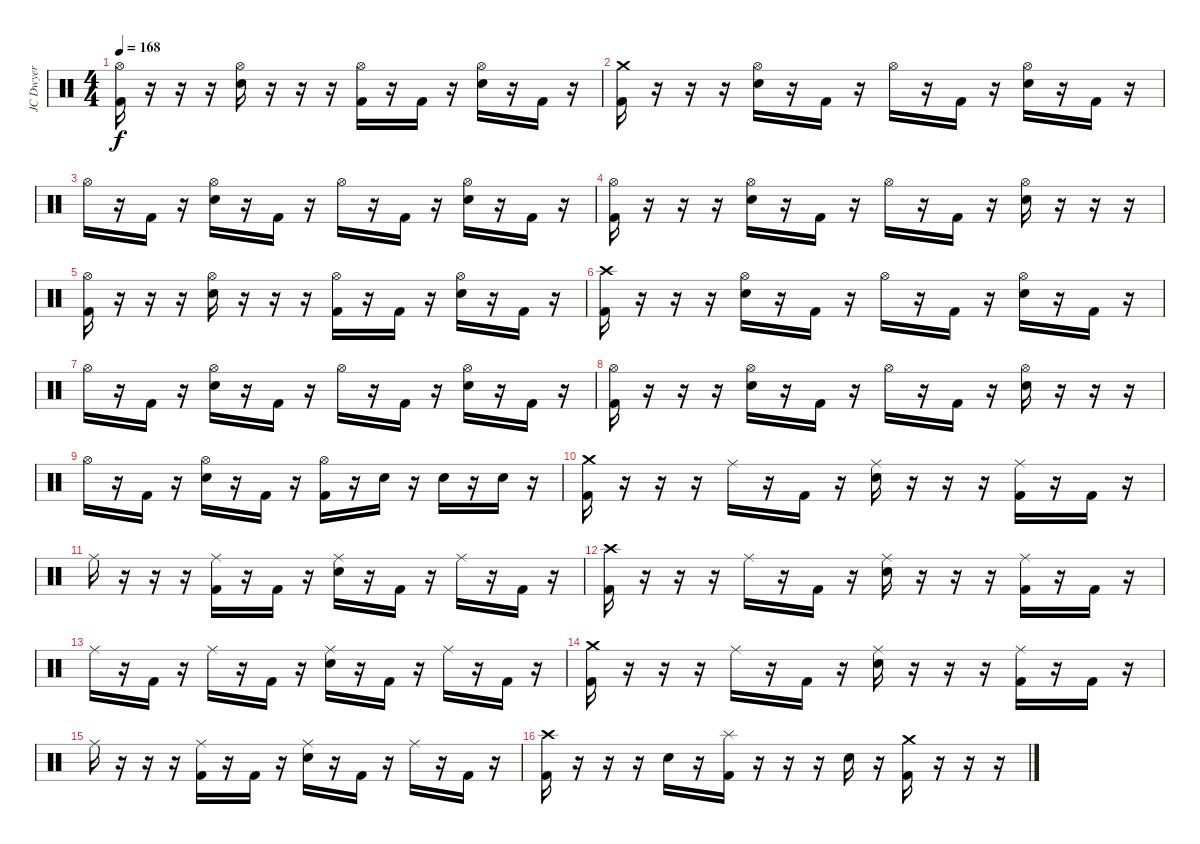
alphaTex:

\track ("JC Dwyer" "JC Dwyer") {instrument percussion}
\staff {score}
\articulation defaults
\ts (4 4)
\tempo 168
\clef neutral
\ks c
("Hi-Hat (open)" "Kick (hit) 2").16{dy f} r.16 r.16 r.16 ("Hi-Hat (open)" "Electric Snare (hit)").16 r.16 r.16 r.16 ("Hi-Hat (open)" "Kick (hit) 2").16 r.16 "Kick (hit) 2".16 r.16 ("Hi-Hat (open)" "Electric Snare (hit)").16 r.16 "Kick (hit) 2".16 r.16 |
("Crash medium (hit)" "Kick (hit) 2").16 r.16 r.16 r.16 ("Hi-Hat (open)" "Electric Snare (hit)").16 r.16 "Kick (hit) 2".16 r.16 "Hi-Hat (open)".16 r.16 "Kick (hit) 2".16 r.16 ("Hi-Hat (open)" "Electric Snare (hit)").16 r.16 "Kick (hit) 2".16 r.16 |
"Hi-Hat (open)".16 r.16 "Kick (hit) 2".16 r.16 ("Hi-Hat (open)" "Electric Snare (hit)").16 r.16 "Kick (hit) 2".16 r.16 "Hi-Hat (open)".16 r.16 "Kick (hit) 2".16 r.16 ("Hi-Hat (open)" "Electric Snare (hit)").16 r.16 "Kick (hit) 2".16 r.16 |
("Hi-Hat (open)" "Kick (hit) 2").16 r.16 r.16 r.16 ("Hi-Hat (open)" "Electric Snare (hit)").16 r.16 "Kick (hit) 2".16 r.16 "Hi-Hat (open)".16 r.16 "Kick (hit) 2".16 r.16 ("Hi-Hat (open)" "Electric Snare (hit)").16 r.16 r.16 r.16 |
("Hi-Hat (open)" "Kick (hit) 2").16 r.16 r.16 r.16 ("Hi-Hat (open)" "Electric Snare (hit)").16 r.16 r.16 r.16 ("Hi-Hat (open)" "Kick (hit) 2").16 r.16 "Kick (hit) 2".16 r.16 ("Hi-Hat (open)" "Electric Snare (hit)").16 r.16 "Kick (hit) 2".16 r.16 |
("Crash high (hit)" "Kick (hit) 2").16 r.16 r.16 r.16 ("Hi-Hat (open)" "Electric Snare (hit)").16 r.16 "Kick (hit) 2".16 r.16 "Hi-Hat (open)".16 r.16 "Kick (hit) 2".16 r.16 ("Hi-Hat (open)" "Electric Snare (hit)").16 r.16 "Kick (hit) 2".16 r.16 |
"Hi-Hat (open)".16 r.16 "Kick (hit) 2".16 r.16 ("Hi-Hat (open)" "Electric Snare (hit)").16 r.16 "Kick (hit) 2".16 r.16 "Hi-Hat (open)".16 r.16 "Kick (hit) 2".16 r.16 ("Hi-Hat (open)" "Electric Snare (hit)").16 r.16 "Kick (hit) 2".16 r.16 |
("Hi-Hat (open)" "Kick (hit) 2").16 r.16 r.16 r.16 ("Hi-Hat (open)" "Electric Snare (hit)").16 r.16 "Kick (hit) 2".16 r.16 "Hi-Hat (open)".16 r.16 "Kick (hit) 2".16 r.16 ("Hi-Hat (open)" "Electric Snare (hit)").16 r.16 r.16 r.16 |
"Hi-Hat (open)".16 r.16 "Kick (hit) 2".16 r.16 ("Hi-Hat (open)" "Electric Snare (hit)").16 r.16 "Kick (hit) 2".16 r.16 ("Hi-Hat (open)" "Kick (hit) 2").16 r.16 "Electric Snare (hit)".16 r.16 "Electric Snare (hit)".16 r.16 "Electric Snare (hit)".16 r.16 |
("Crash medium (hit)" "Kick (hit) 2").16 r.16 r.16 r.16 "Ride (middle)".16 r.16 "Kick (hit) 2".16 r.16 ("Ride (middle)" "Electric Snare (hit)").16 r.16 r.16 r.16 ("Ride (middle)" "Kick (hit) 2").16 r.16 "Kick (hit) 2".16 r.16 |
"Ride (middle)".16 r.16 r.16 r.16 ("Ride (middle)" "Kick (hit) 2").16 r.16 "Kick (hit) 2".16 r.16 ("Ride (middle)" "Electric Snare (hit)").16 r.16 "Kick (hit) 2".16 r.16 "Ride (middle)".16 r.16 "Kick (hit) 2".16 r.16 |
("Crash high (hit)" "Kick (hit) 2").16 r.16 r.16 r.16 "Ride (middle)".16 r.16 "Kick (hit) 2".16 r.16 ("Ride (middle)" "Electric Snare (hit)").16 r.16 r.16 r.16 ("Ride (middle)" "Kick (hit) 2").16 r.16 "Kick (hit) 2".16 r.16 |
"Ride (middle)".16 r.16 "Kick (hit) 2".16 r.16 "Ride (middle)".16 r.16 "Kick (hit) 2".16 r.16 ("Ride (middle)" "Electric Snare (hit)").16 r.16 "Kick (hit) 2".16 r.16 "Ride (middle)".16 r.16 "Kick (hit) 2".16 r.16 |
("Crash medium (hit)" "Kick (hit) 2").16 r.16 r.16 r.16 "Ride (middle)".16 r.16 "Kick (hit) 2".16 r.16 ("Ride (middle)" "Electric Snare (hit)").16 r.16 r.16 r.16 ("Ride (middle)" "Kick (hit) 2").16 r.16 "Kick (hit) 2".16 r.16 |
"Ride (middle)".16 r.16 r.16 r.16 ("Ride (middle)" "Kick (hit) 2").16 r.16 "Kick (hit) 2".16 r.16 ("Ride (middle)" "Electric Snare (hit)").16 r.16 "Kick (hit) 2".16 r.16 "Ride (middle)".16 r.16 "Kick (hit) 2".16 r.16 |
("Crash high (hit)" "Kick (hit) 2").16 r.16 r.16 r.16 "Electric Snare (hit)".16 r.16 ("Splash (hit)" "Kick (hit) 2").16 r.16 r.16 r.16 "Electric Snare (hit)".16 r.16 ("Crash medium (hit)" "Kick (hit) 2").16 r.16 r.16 r.16
